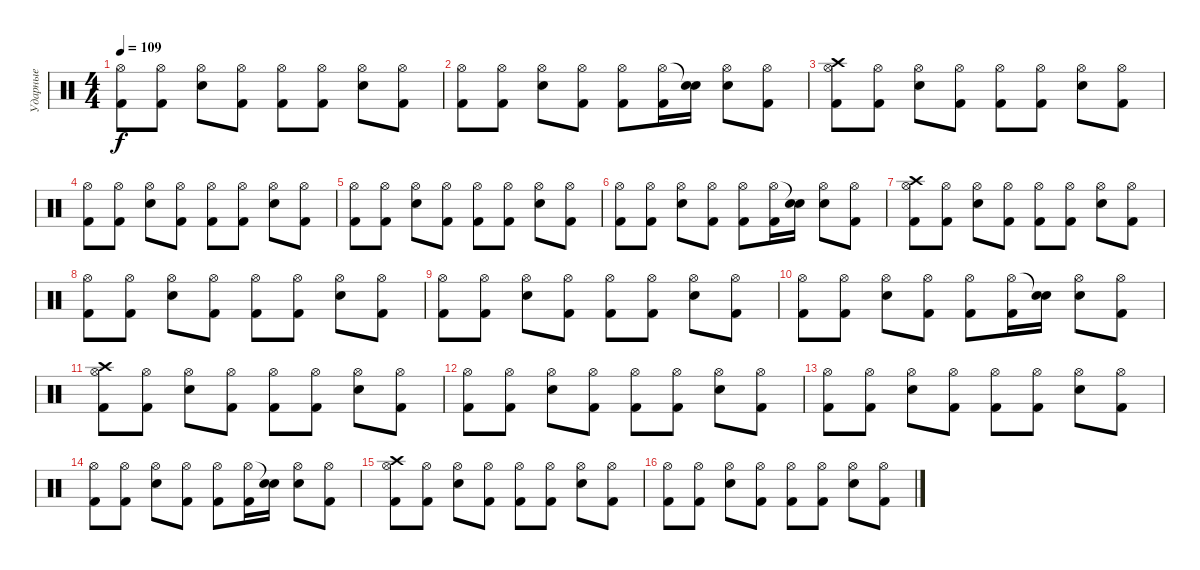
\track ("Ударные" "Ударные") {instrument percussion}
\staff {score}
\articulation defaults
\ts (4 4)
\tempo 109
\clef neutral
\ks c
("Kick (hit) 2" "Hi-Hat (open)").8{dy f} ("Kick (hit) 2" "Hi-Hat (open)").8 ("Snare (hit) 2" "Hi-Hat (open)").8 ("Kick (hit) 2" "Hi-Hat (open)").8 ("Kick (hit) 2" "Hi-Hat (open)").8 ("Kick (hit) 2" "Hi-Hat (open)").8 ("Snare (hit) 2" "Hi-Hat (open)").8 ("Kick (hit) 2" "Hi-Hat (open)").8 |
("Kick (hit) 2" "Hi-Hat (open)").8 ("Kick (hit) 2" "Hi-Hat (open)").8 ("Snare (hit) 2" "Hi-Hat (open)").8 ("Kick (hit) 2" "Hi-Hat (open)").8 ("Kick (hit) 2" "Hi-Hat (open)").8 ("Kick (hit) 2" "Hi-Hat (open)").16 ("Snare (hit) 2" "Snare (hit)"{t}).16 ("Snare (hit) 2" "Hi-Hat (open)").8 ("Kick (hit) 2" "Hi-Hat (open)").8 |
("Kick (hit) 2" "Crash high (hit)" "Hi-Hat (open)").8 ("Kick (hit) 2" "Hi-Hat (open)").8 ("Snare (hit) 2" "Hi-Hat (open)").8 ("Kick (hit) 2" "Hi-Hat (open)").8 ("Kick (hit) 2" "Hi-Hat (open)").8 ("Kick (hit) 2" "Hi-Hat (open)").8 ("Snare (hit) 2" "Hi-Hat (open)").8 ("Kick (hit) 2" "Hi-Hat (open)").8 |
("Kick (hit) 2" "Hi-Hat (open)").8 ("Kick (hit) 2" "Hi-Hat (open)").8 ("Snare (hit) 2" "Hi-Hat (open)").8 ("Kick (hit) 2" "Hi-Hat (open)").8 ("Kick (hit) 2" "Hi-Hat (open)").8 ("Kick (hit) 2" "Hi-Hat (open)").8 ("Snare (hit) 2" "Hi-Hat (open)").8 ("Kick (hit) 2" "Hi-Hat (open)").8 |
("Kick (hit) 2" "Hi-Hat (open)").8 ("Kick (hit) 2" "Hi-Hat (open)").8 ("Snare (hit) 2" "Hi-Hat (open)").8 ("Kick (hit) 2" "Hi-Hat (open)").8 ("Kick (hit) 2" "Hi-Hat (open)").8 ("Kick (hit) 2" "Hi-Hat (open)").8 ("Snare (hit) 2" "Hi-Hat (open)").8 ("Kick (hit) 2" "Hi-Hat (open)").8 |
("Kick (hit) 2" "Hi-Hat (open)").8 ("Kick (hit) 2" "Hi-Hat (open)").8 ("Snare (hit) 2" "Hi-Hat (open)").8 ("Kick (hit) 2" "Hi-Hat (open)").8 ("Kick (hit) 2" "Hi-Hat (open)").8 ("Kick (hit) 2" "Hi-Hat (open)").16 ("Snare (hit) 2" "Snare (hit)"{t}).16 ("Snare (hit) 2" "Hi-Hat (open)").8 ("Kick (hit) 2" "Hi-Hat (open)").8 |
("Kick (hit) 2" "Crash high (hit)" "Hi-Hat (open)").8 ("Kick (hit) 2" "Hi-Hat (open)").8 ("Snare (hit) 2" "Hi-Hat (open)").8 ("Kick (hit) 2" "Hi-Hat (open)").8 ("Kick (hit) 2" "Hi-Hat (open)").8 ("Kick (hit) 2" "Hi-Hat (open)").8 ("Snare (hit) 2" "Hi-Hat (open)").8 ("Kick (hit) 2" "Hi-Hat (open)").8 |
("Kick (hit) 2" "Hi-Hat (open)").8 ("Kick (hit) 2" "Hi-Hat (open)").8 ("Snare (hit) 2" "Hi-Hat (open)").8 ("Kick (hit) 2" "Hi-Hat (open)").8 ("Kick (hit) 2" "Hi-Hat (open)").8 ("Kick (hit) 2" "Hi-Hat (open)").8 ("Snare (hit) 2" "Hi-Hat (open)").8 ("Kick (hit) 2" "Hi-Hat (open)").8 |
("Kick (hit) 2" "Hi-Hat (open)").8 ("Kick (hit) 2" "Hi-Hat (open)").8 ("Snare (hit) 2" "Hi-Hat (open)").8 ("Kick (hit) 2" "Hi-Hat (open)").8 ("Kick (hit) 2" "Hi-Hat (open)").8 ("Kick (hit) 2" "Hi-Hat (open)").8 ("Snare (hit) 2" "Hi-Hat (open)").8 ("Kick (hit) 2" "Hi-Hat (open)").8 |
("Kick (hit) 2" "Hi-Hat (open)").8 ("Kick (hit) 2" "Hi-Hat (open)").8 ("Snare (hit) 2" "Hi-Hat (open)").8 ("Kick (hit) 2" "Hi-Hat (open)").8 ("Kick (hit) 2" "Hi-Hat (open)").8 ("Kick (hit) 2" "Hi-Hat (open)").16 ("Snare (hit) 2" "Snare (hit)"{t}).16 ("Snare (hit) 2" "Hi-Hat (open)").8 ("Kick (hit) 2" "Hi-Hat (open)").8 |
("Kick (hit) 2" "Crash high (hit)" "Hi-Hat (open)").8 ("Kick (hit) 2" "Hi-Hat (open)").8 ("Snare (hit) 2" "Hi-Hat (open)").8 ("Kick (hit) 2" "Hi-Hat (open)").8 ("Kick (hit) 2" "Hi-Hat (open)").8 ("Kick (hit) 2" "Hi-Hat (open)").8 ("Snare (hit) 2" "Hi-Hat (open)").8 ("Kick (hit) 2" "Hi-Hat (open)").8 |
("Kick (hit) 2" "Hi-Hat (open)").8 ("Kick (hit) 2" "Hi-Hat (open)").8 ("Snare (hit) 2" "Hi-Hat (open)").8 ("Kick (hit) 2" "Hi-Hat (open)").8 ("Kick (hit) 2" "Hi-Hat (open)").8 ("Kick (hit) 2" "Hi-Hat (open)").8 ("Snare (hit) 2" "Hi-Hat (open)").8 ("Kick (hit) 2" "Hi-Hat (open)").8 |
("Kick (hit) 2" "Hi-Hat (open)").8 ("Kick (hit) 2" "Hi-Hat (open)").8 ("Snare (hit) 2" "Hi-Hat (open)").8 ("Kick (hit) 2" "Hi-Hat (open)").8 ("Kick (hit) 2" "Hi-Hat (open)").8 ("Kick (hit) 2" "Hi-Hat (open)").8 ("Snare (hit) 2" "Hi-Hat (open)").8 ("Kick (hit) 2" "Hi-Hat (open)").8 |
("Kick (hit) 2" "Hi-Hat (open)").8 ("Kick (hit) 2" "Hi-Hat (open)").8 ("Snare (hit) 2" "Hi-Hat (open)").8 ("Kick (hit) 2" "Hi-Hat (open)").8 ("Kick (hit) 2" "Hi-Hat (open)").8 ("Kick (hit) 2" "Hi-Hat (open)").16 ("Snare (hit) 2" "Snare (hit)"{t}).16 ("Snare (hit) 2" "Hi-Hat (open)").8 ("Kick (hit) 2" "Hi-Hat (open)").8 |
("Kick (hit) 2" "Crash high (hit)" "Hi-Hat (open)").8 ("Kick (hit) 2" "Hi-Hat (open)").8 ("Snare (hit) 2" "Hi-Hat (open)").8 ("Kick (hit) 2" "Hi-Hat (open)").8 ("Kick (hit) 2" "Hi-Hat (open)").8 ("Kick (hit) 2" "Hi-Hat (open)").8 ("Snare (hit) 2" "Hi-Hat (open)").8 ("Kick (hit) 2" "Hi-Hat (open)").8 |
("Kick (hit) 2" "Hi-Hat (open)").8 ("Kick (hit) 2" "Hi-Hat (open)").8 ("Snare (hit) 2" "Hi-Hat (open)").8 ("Kick (hit) 2" "Hi-Hat (open)").8 ("Kick (hit) 2" "Hi-Hat (open)").8 ("Kick (hit) 2" "Hi-Hat (open)").8 ("Snare (hit) 2" "Hi-Hat (open)").8 ("Kick (hit) 2" "Hi-Hat (open)").8
